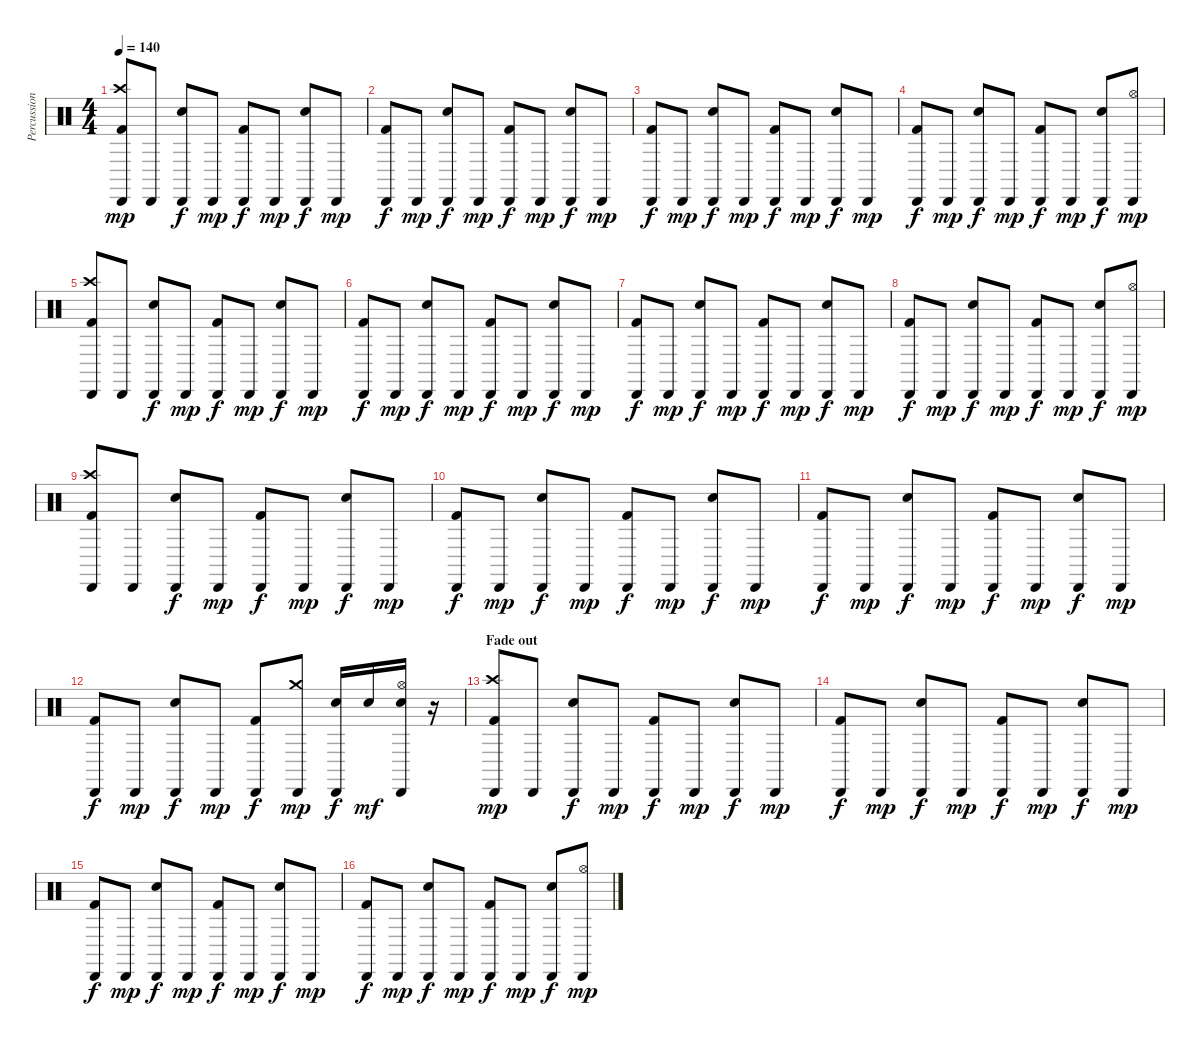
\track ("Percussion" "Percussion") {instrument percussion}
\staff {score}
\articulation defaults
\ts (4 4)
\tempo 140
\clef neutral
\ks c
("Cabasa (hit)" "Crash high (hit)" "Kick (hit) 2").8{dy mp} "Cabasa (hit)".8 ("Cabasa (hit)" "Electric Snare (hit)").8{dy f} "Cabasa (hit)".8{dy mp} ("Cabasa (hit)" "Kick (hit) 2").8{dy f} "Cabasa (hit)".8{dy mp} ("Cabasa (hit)" "Electric Snare (hit)").8{dy f} "Cabasa (hit)".8{dy mp} |
("Cabasa (hit)" "Kick (hit) 2").8{dy f} "Cabasa (hit)".8{dy mp} ("Cabasa (hit)" "Electric Snare (hit)").8{dy f} "Cabasa (hit)".8{dy mp} ("Cabasa (hit)" "Kick (hit) 2").8{dy f} "Cabasa (hit)".8{dy mp} ("Cabasa (hit)" "Electric Snare (hit)").8{dy f} "Cabasa (hit)".8{dy mp} |
("Cabasa (hit)" "Kick (hit) 2").8{dy f} "Cabasa (hit)".8{dy mp} ("Cabasa (hit)" "Electric Snare (hit)").8{dy f} "Cabasa (hit)".8{dy mp} ("Cabasa (hit)" "Kick (hit) 2").8{dy f} "Cabasa (hit)".8{dy mp} ("Cabasa (hit)" "Electric Snare (hit)").8{dy f} "Cabasa (hit)".8{dy mp} |
("Cabasa (hit)" "Kick (hit) 2").8{dy f} "Cabasa (hit)".8{dy mp} ("Cabasa (hit)" "Electric Snare (hit)").8{dy f} "Cabasa (hit)".8{dy mp} ("Cabasa (hit)" "Kick (hit) 2").8{dy f} "Cabasa (hit)".8{dy mp} ("Cabasa (hit)" "Electric Snare (hit)").8{dy f} ("Cabasa (hit)" "Hi-Hat (open)").8{dy mp} |
("Cabasa (hit)" "Crash high (hit)" "Kick (hit) 2").8 "Cabasa (hit)".8 ("Cabasa (hit)" "Electric Snare (hit)").8{dy f} "Cabasa (hit)".8{dy mp} ("Cabasa (hit)" "Kick (hit) 2").8{dy f} "Cabasa (hit)".8{dy mp} ("Cabasa (hit)" "Electric Snare (hit)").8{dy f} "Cabasa (hit)".8{dy mp} |
("Cabasa (hit)" "Kick (hit) 2").8{dy f} "Cabasa (hit)".8{dy mp} ("Cabasa (hit)" "Electric Snare (hit)").8{dy f} "Cabasa (hit)".8{dy mp} ("Cabasa (hit)" "Kick (hit) 2").8{dy f} "Cabasa (hit)".8{dy mp} ("Cabasa (hit)" "Electric Snare (hit)").8{dy f} "Cabasa (hit)".8{dy mp} |
("Cabasa (hit)" "Kick (hit) 2").8{dy f} "Cabasa (hit)".8{dy mp} ("Cabasa (hit)" "Electric Snare (hit)").8{dy f} "Cabasa (hit)".8{dy mp} ("Cabasa (hit)" "Kick (hit) 2").8{dy f} "Cabasa (hit)".8{dy mp} ("Cabasa (hit)" "Electric Snare (hit)").8{dy f} "Cabasa (hit)".8{dy mp} |
("Cabasa (hit)" "Kick (hit) 2").8{dy f} "Cabasa (hit)".8{dy mp} ("Cabasa (hit)" "Electric Snare (hit)").8{dy f} "Cabasa (hit)".8{dy mp} ("Cabasa (hit)" "Kick (hit) 2").8{dy f} "Cabasa (hit)".8{dy mp} ("Cabasa (hit)" "Electric Snare (hit)").8{dy f} ("Cabasa (hit)" "Hi-Hat (open)").8{dy mp} |
("Cabasa (hit)" "Crash high (hit)" "Kick (hit) 2").8 "Cabasa (hit)".8 ("Cabasa (hit)" "Electric Snare (hit)").8{dy f} "Cabasa (hit)".8{dy mp} ("Cabasa (hit)" "Kick (hit) 2").8{dy f} "Cabasa (hit)".8{dy mp} ("Cabasa (hit)" "Electric Snare (hit)").8{dy f} "Cabasa (hit)".8{dy mp} |
("Cabasa (hit)" "Kick (hit) 2").8{dy f} "Cabasa (hit)".8{dy mp} ("Cabasa (hit)" "Electric Snare (hit)").8{dy f} "Cabasa (hit)".8{dy mp} ("Cabasa (hit)" "Kick (hit) 2").8{dy f} "Cabasa (hit)".8{dy mp} ("Cabasa (hit)" "Electric Snare (hit)").8{dy f} "Cabasa (hit)".8{dy mp} |
("Cabasa (hit)" "Kick (hit) 2").8{dy f} "Cabasa (hit)".8{dy mp} ("Cabasa (hit)" "Electric Snare (hit)").8{dy f} "Cabasa (hit)".8{dy mp} ("Cabasa (hit)" "Kick (hit) 2").8{dy f} "Cabasa (hit)".8{dy mp} ("Cabasa (hit)" "Electric Snare (hit)").8{dy f} "Cabasa (hit)".8{dy mp} |
("Cabasa (hit)" "Kick (hit) 2").8{dy f} "Cabasa (hit)".8{dy mp} ("Cabasa (hit)" "Electric Snare (hit)").8{dy f} "Cabasa (hit)".8{dy mp} ("Cabasa (hit)" "Kick (hit) 2").8{dy f} ("Cabasa (hit)" "Crash medium (hit)").8{dy mp} ("Cabasa (hit)" "Electric Snare (hit)").16{dy f} "Electric Snare (hit)".16{dy mf} ("Cabasa (hit)" "Hi-Hat (open)" "Electric Snare (hit)").16 r.16 |
\section ("" "Fade out")
("Cabasa (hit)" "Crash high (hit)" "Kick (hit) 2").8{dy mp} "Cabasa (hit)".8 ("Cabasa (hit)" "Electric Snare (hit)").8{dy f} "Cabasa (hit)".8{dy mp} ("Cabasa (hit)" "Kick (hit) 2").8{dy f} "Cabasa (hit)".8{dy mp} ("Cabasa (hit)" "Electric Snare (hit)").8{dy f} "Cabasa (hit)".8{dy mp} |
("Cabasa (hit)" "Kick (hit) 2").8{dy f} "Cabasa (hit)".8{dy mp} ("Cabasa (hit)" "Electric Snare (hit)").8{dy f} "Cabasa (hit)".8{dy mp} ("Cabasa (hit)" "Kick (hit) 2").8{dy f} "Cabasa (hit)".8{dy mp} ("Cabasa (hit)" "Electric Snare (hit)").8{dy f} "Cabasa (hit)".8{dy mp} |
("Cabasa (hit)" "Kick (hit) 2").8{dy f} "Cabasa (hit)".8{dy mp} ("Cabasa (hit)" "Electric Snare (hit)").8{dy f} "Cabasa (hit)".8{dy mp} ("Cabasa (hit)" "Kick (hit) 2").8{dy f} "Cabasa (hit)".8{dy mp} ("Cabasa (hit)" "Electric Snare (hit)").8{dy f} "Cabasa (hit)".8{dy mp} |
("Cabasa (hit)" "Kick (hit) 2").8{dy f} "Cabasa (hit)".8{dy mp} ("Cabasa (hit)" "Electric Snare (hit)").8{dy f} "Cabasa (hit)".8{dy mp} ("Cabasa (hit)" "Kick (hit) 2").8{dy f} "Cabasa (hit)".8{dy mp} ("Cabasa (hit)" "Electric Snare (hit)").8{dy f} ("Cabasa (hit)" "Hi-Hat (open)").8{dy mp}
